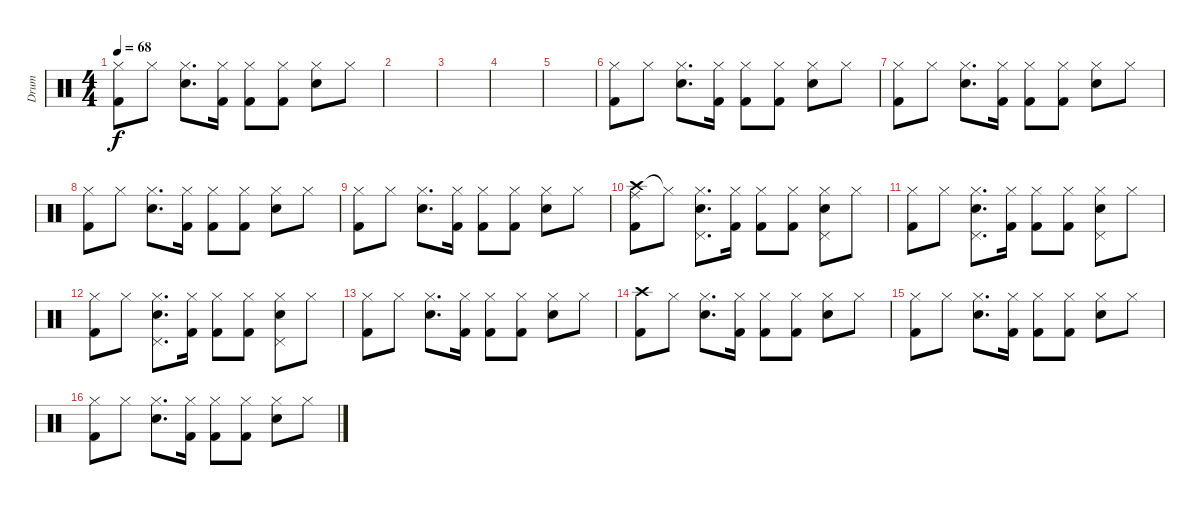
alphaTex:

\track ("Drum" "Drum") {instrument percussion}
\staff {score}
\articulation defaults
\ts (4 4)
\tempo 68
\clef neutral
\ks c
("Hi-Hat (closed)" "Kick (hit) 2").8{dy f} "Hi-Hat (closed)".8 ("Hi-Hat (closed)" "Electric Snare (hit)").8{d} ("Hi-Hat (closed)" "Kick (hit) 2").16 ("Hi-Hat (closed)" "Kick (hit) 2").8 ("Hi-Hat (closed)" "Kick (hit) 2").8 ("Hi-Hat (closed)" "Electric Snare (hit)").8 "Hi-Hat (closed)".8 |
|
|
|
|
("Hi-Hat (closed)" "Kick (hit) 2").8 "Hi-Hat (closed)".8 ("Hi-Hat (closed)" "Electric Snare (hit)").8{d} ("Hi-Hat (closed)" "Kick (hit) 2").16 ("Hi-Hat (closed)" "Kick (hit) 2").8 ("Hi-Hat (closed)" "Kick (hit) 2").8 ("Hi-Hat (closed)" "Electric Snare (hit)").8 "Hi-Hat (closed)".8 |
("Hi-Hat (closed)" "Kick (hit) 2").8 "Hi-Hat (closed)".8 ("Hi-Hat (closed)" "Electric Snare (hit)").8{d} ("Hi-Hat (closed)" "Kick (hit) 2").16 ("Hi-Hat (closed)" "Kick (hit) 2").8 ("Hi-Hat (closed)" "Kick (hit) 2").8 ("Hi-Hat (closed)" "Electric Snare (hit)").8 "Hi-Hat (closed)".8 |
("Hi-Hat (closed)" "Kick (hit) 2").8 "Hi-Hat (closed)".8 ("Hi-Hat (closed)" "Electric Snare (hit)").8{d} ("Hi-Hat (closed)" "Kick (hit) 2").16 ("Hi-Hat (closed)" "Kick (hit) 2").8 ("Hi-Hat (closed)" "Kick (hit) 2").8 ("Hi-Hat (closed)" "Electric Snare (hit)").8 "Hi-Hat (closed)".8 |
("Hi-Hat (closed)" "Kick (hit) 2").8 "Hi-Hat (closed)".8 ("Hi-Hat (closed)" "Electric Snare (hit)").8{d} ("Hi-Hat (closed)" "Kick (hit) 2").16 ("Hi-Hat (closed)" "Kick (hit) 2").8 ("Hi-Hat (closed)" "Kick (hit) 2").8 ("Hi-Hat (closed)" "Electric Snare (hit)").8 "Hi-Hat (closed)".8 |
("Crash high (hit)" "Ride (middle)" "Kick (hit) 2").8 "Hi-Hat (closed)"{t}.8 ("Hi-Hat (closed)" "Pedal Hi-Hat (hit)" "Electric Snare (hit)").8{d} ("Hi-Hat (closed)" "Kick (hit) 2").16 ("Hi-Hat (closed)" "Kick (hit) 2").8 ("Hi-Hat (closed)" "Kick (hit) 2").8 ("Hi-Hat (closed)" "Pedal Hi-Hat (hit)" "Electric Snare (hit)").8 "Hi-Hat (closed)".8 |
("Hi-Hat (closed)" "Kick (hit) 2").8 "Hi-Hat (closed)".8 ("Hi-Hat (closed)" "Pedal Hi-Hat (hit)" "Electric Snare (hit)").8{d} ("Hi-Hat (closed)" "Kick (hit) 2").16 ("Hi-Hat (closed)" "Kick (hit) 2").8 ("Hi-Hat (closed)" "Kick (hit) 2").8 ("Hi-Hat (closed)" "Pedal Hi-Hat (hit)" "Electric Snare (hit)").8 "Hi-Hat (closed)".8 |
("Hi-Hat (closed)" "Kick (hit) 2").8 "Hi-Hat (closed)".8 ("Hi-Hat (closed)" "Pedal Hi-Hat (hit)" "Electric Snare (hit)").8{d} ("Hi-Hat (closed)" "Kick (hit) 2").16 ("Hi-Hat (closed)" "Kick (hit) 2").8 ("Hi-Hat (closed)" "Kick (hit) 2").8 ("Hi-Hat (closed)" "Pedal Hi-Hat (hit)" "Electric Snare (hit)").8 "Hi-Hat (closed)".8 |
("Hi-Hat (closed)" "Kick (hit) 2").8 "Hi-Hat (closed)".8 ("Hi-Hat (closed)" "Electric Snare (hit)").8{d} ("Hi-Hat (closed)" "Kick (hit) 2").16 ("Hi-Hat (closed)" "Kick (hit) 2").8 ("Hi-Hat (closed)" "Kick (hit) 2").8 ("Hi-Hat (closed)" "Electric Snare (hit)").8 "Hi-Hat (closed)".8 |
("Crash high (hit)" "Kick (hit) 2").8 "Hi-Hat (closed)".8 ("Hi-Hat (closed)" "Electric Snare (hit)").8{d} ("Hi-Hat (closed)" "Kick (hit) 2").16 ("Hi-Hat (closed)" "Kick (hit) 2").8 ("Hi-Hat (closed)" "Kick (hit) 2").8 ("Hi-Hat (closed)" "Electric Snare (hit)").8 "Hi-Hat (closed)".8 |
("Hi-Hat (closed)" "Kick (hit) 2").8 "Hi-Hat (closed)".8 ("Hi-Hat (closed)" "Electric Snare (hit)").8{d} ("Hi-Hat (closed)" "Kick (hit) 2").16 ("Hi-Hat (closed)" "Kick (hit) 2").8 ("Hi-Hat (closed)" "Kick (hit) 2").8 ("Hi-Hat (closed)" "Electric Snare (hit)").8 "Hi-Hat (closed)".8 |
("Hi-Hat (closed)" "Kick (hit) 2").8 "Hi-Hat (closed)".8 ("Hi-Hat (closed)" "Electric Snare (hit)").8{d} ("Hi-Hat (closed)" "Kick (hit) 2").16 ("Hi-Hat (closed)" "Kick (hit) 2").8 ("Hi-Hat (closed)" "Kick (hit) 2").8 ("Hi-Hat (closed)" "Electric Snare (hit)").8 "Hi-Hat (closed)".8
